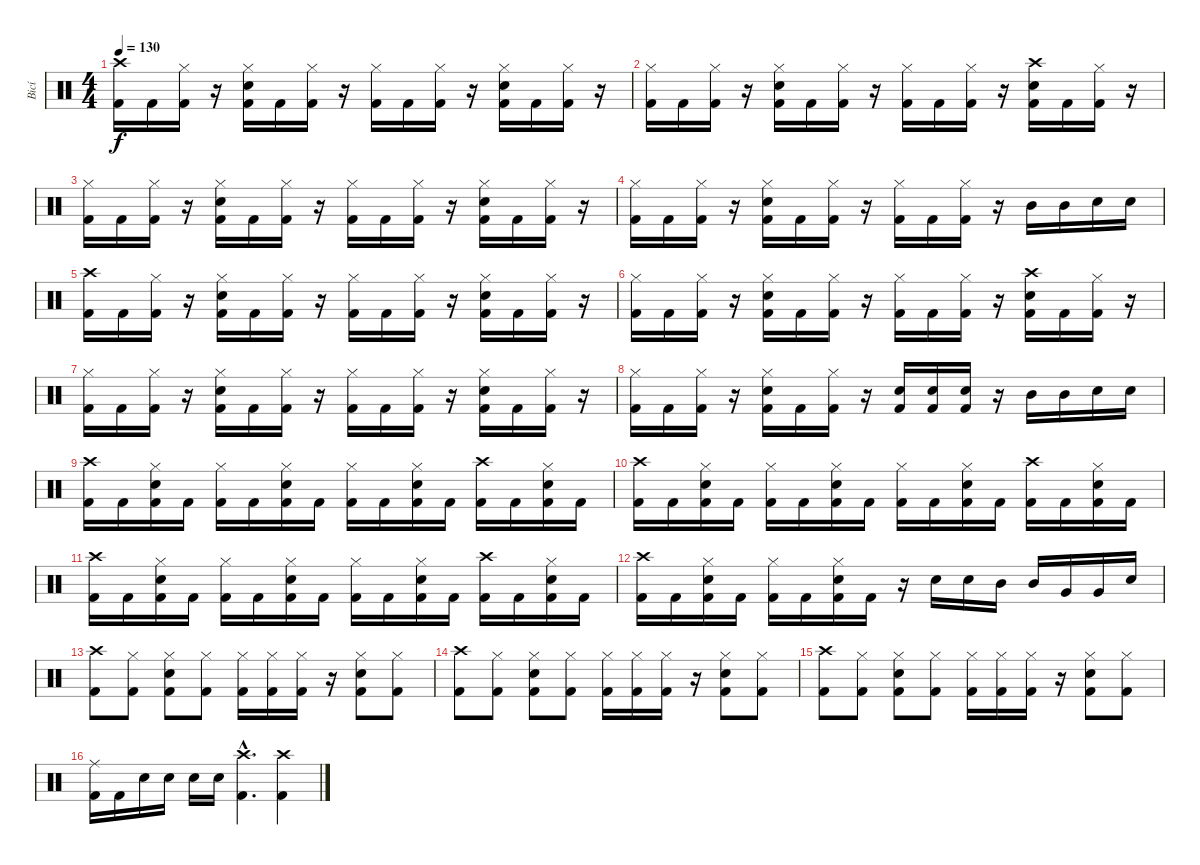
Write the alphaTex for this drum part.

\track ("Bicí" "Bicí") {instrument percussion}
\staff {score}
\articulation defaults
\ts (4 4)
\tempo 130
\clef neutral
\ks c
("Crash high (hit)" "Kick (hit) 2").16{dy f} "Kick (hit) 2".16 ("Hi-Hat (closed)" "Kick (hit) 2").16 r.16 ("Hi-Hat (closed)" "Snare (hit) 2" "Kick (hit) 2").16 "Kick (hit) 2".16 ("Hi-Hat (closed)" "Kick (hit) 2").16 r.16 ("Hi-Hat (closed)" "Kick (hit) 2").16 "Kick (hit) 2".16 ("Hi-Hat (closed)" "Kick (hit) 2").16 r.16 ("Hi-Hat (closed)" "Snare (hit) 2" "Kick (hit) 2").16 "Kick (hit) 2".16 ("Hi-Hat (closed)" "Kick (hit) 2").16 r.16 |
("Hi-Hat (closed)" "Kick (hit) 2").16 "Kick (hit) 2".16 ("Hi-Hat (closed)" "Kick (hit) 2").16 r.16 ("Hi-Hat (closed)" "Snare (hit) 2" "Kick (hit) 2").16 "Kick (hit) 2".16 ("Hi-Hat (closed)" "Kick (hit) 2").16 r.16 ("Hi-Hat (closed)" "Kick (hit) 2").16 "Kick (hit) 2".16 ("Hi-Hat (closed)" "Kick (hit) 2").16 r.16 ("Crash high (hit)" "Snare (hit) 2" "Kick (hit) 2").16 "Kick (hit) 2".16 ("Hi-Hat (closed)" "Kick (hit) 2").16 r.16 |
("Hi-Hat (closed)" "Kick (hit) 2").16 "Kick (hit) 2".16 ("Hi-Hat (closed)" "Kick (hit) 2").16 r.16 ("Hi-Hat (closed)" "Snare (hit) 2" "Kick (hit) 2").16 "Kick (hit) 2".16 ("Hi-Hat (closed)" "Kick (hit) 2").16 r.16 ("Hi-Hat (closed)" "Kick (hit) 2").16 "Kick (hit) 2".16 ("Hi-Hat (closed)" "Kick (hit) 2").16 r.16 ("Hi-Hat (closed)" "Snare (hit) 2" "Kick (hit) 2").16 "Kick (hit) 2".16 ("Hi-Hat (closed)" "Kick (hit) 2").16 r.16 |
("Hi-Hat (closed)" "Kick (hit) 2").16 "Kick (hit) 2".16 ("Hi-Hat (closed)" "Kick (hit) 2").16 r.16 ("Hi-Hat (closed)" "Snare (hit) 2" "Kick (hit) 2").16 "Kick (hit) 2".16 ("Hi-Hat (closed)" "Kick (hit) 2").16 r.16 ("Hi-Hat (closed)" "Kick (hit) 2").16 "Kick (hit) 2".16 ("Hi-Hat (closed)" "Kick (hit) 2").16 r.16 "Mid Tom (hit)".16 "Mid Tom (hit)".16 "Snare (hit) 2".16 "Snare (hit) 2".16 |
("Crash high (hit)" "Kick (hit) 2").16 "Kick (hit) 2".16 ("Hi-Hat (closed)" "Kick (hit) 2").16 r.16 ("Hi-Hat (closed)" "Snare (hit) 2" "Kick (hit) 2").16 "Kick (hit) 2".16 ("Hi-Hat (closed)" "Kick (hit) 2").16 r.16 ("Hi-Hat (closed)" "Kick (hit) 2").16 "Kick (hit) 2".16 ("Hi-Hat (closed)" "Kick (hit) 2").16 r.16 ("Hi-Hat (closed)" "Snare (hit) 2" "Kick (hit) 2").16 "Kick (hit) 2".16 ("Hi-Hat (closed)" "Kick (hit) 2").16 r.16 |
("Hi-Hat (closed)" "Kick (hit) 2").16 "Kick (hit) 2".16 ("Hi-Hat (closed)" "Kick (hit) 2").16 r.16 ("Hi-Hat (closed)" "Snare (hit) 2" "Kick (hit) 2").16 "Kick (hit) 2".16 ("Hi-Hat (closed)" "Kick (hit) 2").16 r.16 ("Hi-Hat (closed)" "Kick (hit) 2").16 "Kick (hit) 2".16 ("Hi-Hat (closed)" "Kick (hit) 2").16 r.16 ("Crash high (hit)" "Snare (hit) 2" "Kick (hit) 2").16 "Kick (hit) 2".16 ("Hi-Hat (closed)" "Kick (hit) 2").16 r.16 |
("Hi-Hat (closed)" "Kick (hit) 2").16 "Kick (hit) 2".16 ("Hi-Hat (closed)" "Kick (hit) 2").16 r.16 ("Hi-Hat (closed)" "Snare (hit) 2" "Kick (hit) 2").16 "Kick (hit) 2".16 ("Hi-Hat (closed)" "Kick (hit) 2").16 r.16 ("Hi-Hat (closed)" "Kick (hit) 2").16 "Kick (hit) 2".16 ("Hi-Hat (closed)" "Kick (hit) 2").16 r.16 ("Hi-Hat (closed)" "Snare (hit) 2" "Kick (hit) 2").16 "Kick (hit) 2".16 ("Hi-Hat (closed)" "Kick (hit) 2").16 r.16 |
("Hi-Hat (closed)" "Kick (hit) 2").16 "Kick (hit) 2".16 ("Hi-Hat (closed)" "Kick (hit) 2").16 r.16 ("Hi-Hat (closed)" "Snare (hit) 2" "Kick (hit) 2").16 "Kick (hit) 2".16 ("Hi-Hat (closed)" "Kick (hit) 2").16 r.16 ("Snare (hit) 2" "Kick (hit) 2").16 ("Snare (hit) 2" "Kick (hit) 2").16 ("Snare (hit) 2" "Kick (hit) 2").16 r.16 "Mid Tom (hit)".16 "Mid Tom (hit)".16 "Snare (hit) 2".16 "Snare (hit) 2".16 |
("Crash high (hit)" "Kick (hit) 2").16 "Kick (hit) 2".16 ("Hi-Hat (closed)" "Snare (hit) 2" "Kick (hit) 2").16 "Kick (hit) 2".16 ("Hi-Hat (closed)" "Kick (hit) 2").16 "Kick (hit) 2".16 ("Hi-Hat (closed)" "Snare (hit) 2" "Kick (hit) 2").16 "Kick (hit) 2".16 ("Hi-Hat (closed)" "Kick (hit) 2").16 "Kick (hit) 2".16 ("Hi-Hat (closed)" "Snare (hit) 2" "Kick (hit) 2").16 "Kick (hit) 2".16 ("Crash high (hit)" "Kick (hit) 2").16 "Kick (hit) 2".16 ("Hi-Hat (closed)" "Snare (hit) 2" "Kick (hit) 2").16 "Kick (hit) 2".16 |
("Crash high (hit)" "Kick (hit) 2").16 "Kick (hit) 2".16 ("Hi-Hat (closed)" "Snare (hit) 2" "Kick (hit) 2").16 "Kick (hit) 2".16 ("Hi-Hat (closed)" "Kick (hit) 2").16 "Kick (hit) 2".16 ("Hi-Hat (closed)" "Snare (hit) 2" "Kick (hit) 2").16 "Kick (hit) 2".16 ("Hi-Hat (closed)" "Kick (hit) 2").16 "Kick (hit) 2".16 ("Hi-Hat (closed)" "Snare (hit) 2" "Kick (hit) 2").16 "Kick (hit) 2".16 ("Crash high (hit)" "Kick (hit) 2").16 "Kick (hit) 2".16 ("Hi-Hat (closed)" "Snare (hit) 2" "Kick (hit) 2").16 "Kick (hit) 2".16 |
("Crash high (hit)" "Kick (hit) 2").16 "Kick (hit) 2".16 ("Hi-Hat (closed)" "Snare (hit) 2" "Kick (hit) 2").16 "Kick (hit) 2".16 ("Hi-Hat (closed)" "Kick (hit) 2").16 "Kick (hit) 2".16 ("Hi-Hat (closed)" "Snare (hit) 2" "Kick (hit) 2").16 "Kick (hit) 2".16 ("Hi-Hat (closed)" "Kick (hit) 2").16 "Kick (hit) 2".16 ("Hi-Hat (closed)" "Snare (hit) 2" "Kick (hit) 2").16 "Kick (hit) 2".16 ("Crash high (hit)" "Kick (hit) 2").16 "Kick (hit) 2".16 ("Hi-Hat (closed)" "Snare (hit) 2" "Kick (hit) 2").16 "Kick (hit) 2".16 |
("Crash high (hit)" "Kick (hit) 2").16 "Kick (hit) 2".16 ("Hi-Hat (closed)" "Snare (hit) 2" "Kick (hit) 2").16 "Kick (hit) 2".16 ("Hi-Hat (closed)" "Kick (hit) 2").16 "Kick (hit) 2".16 ("Hi-Hat (closed)" "Snare (hit) 2" "Kick (hit) 2").16 "Kick (hit) 2".16 r.16 "Snare (hit) 2".16 "Snare (hit) 2".16 "Mid Tom (hit)".16 "Mid Tom (hit)".16 "Very Low Tom (hit)".16 "Very Low Tom (hit)".16 "Snare (hit) 2".16 |
("Crash high (hit)" "Kick (hit) 2").8 ("Hi-Hat (closed)" "Kick (hit) 2").8 ("Hi-Hat (closed)" "Snare (hit) 2" "Kick (hit) 2").8 ("Hi-Hat (closed)" "Kick (hit) 2").8 ("Hi-Hat (closed)" "Kick (hit) 2").16 ("Hi-Hat (closed)" "Kick (hit) 2").16 ("Hi-Hat (closed)" "Kick (hit) 2").16 r.16 ("Hi-Hat (closed)" "Snare (hit) 2" "Kick (hit) 2").8 ("Hi-Hat (closed)" "Kick (hit) 2").8 |
("Crash high (hit)" "Kick (hit) 2").8 ("Hi-Hat (closed)" "Kick (hit) 2").8 ("Hi-Hat (closed)" "Snare (hit) 2" "Kick (hit) 2").8 ("Hi-Hat (closed)" "Kick (hit) 2").8 ("Hi-Hat (closed)" "Kick (hit) 2").16 ("Hi-Hat (closed)" "Kick (hit) 2").16 ("Hi-Hat (closed)" "Kick (hit) 2").16 r.16 ("Hi-Hat (closed)" "Snare (hit) 2" "Kick (hit) 2").8 ("Hi-Hat (closed)" "Kick (hit) 2").8 |
("Crash high (hit)" "Kick (hit) 2").8 ("Hi-Hat (closed)" "Kick (hit) 2").8 ("Hi-Hat (closed)" "Snare (hit) 2" "Kick (hit) 2").8 ("Hi-Hat (closed)" "Kick (hit) 2").8 ("Hi-Hat (closed)" "Kick (hit) 2").16 ("Hi-Hat (closed)" "Kick (hit) 2").16 ("Hi-Hat (closed)" "Kick (hit) 2").16 r.16 ("Hi-Hat (closed)" "Snare (hit) 2" "Kick (hit) 2").8 ("Hi-Hat (closed)" "Kick (hit) 2").8 |
("Ride (middle)" "Kick (hit) 2").16 "Kick (hit) 2".16 "Snare (hit) 2".16 "Snare (hit) 2".16 "Snare (hit) 2".16 "Snare (hit) 2".16 ("Crash high (hit)"{hac} "Kick (hit) 2"{hac}).4{d} ("Crash high (hit)" "Kick (hit) 2").4
